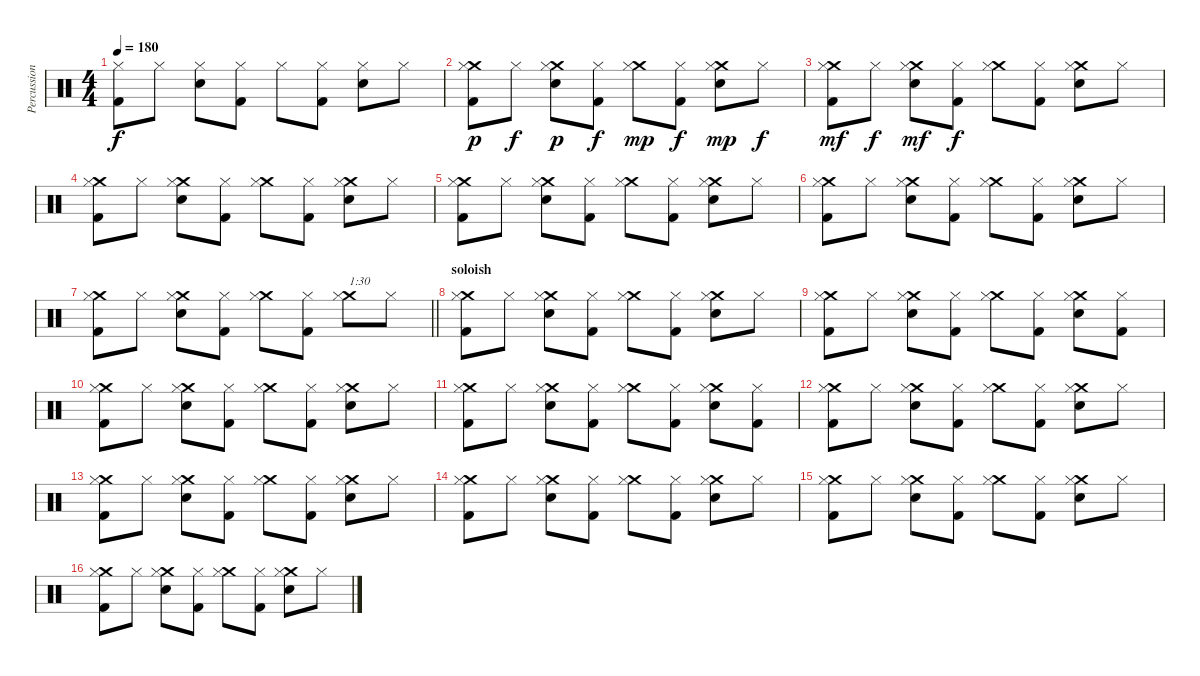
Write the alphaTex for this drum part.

\track ("Percussion" "Percussion") {instrument percussion}
\staff {score}
\articulation defaults
\ts (4 4)
\tempo 180
\clef neutral
\ks c
("Hi-Hat (closed)" "Kick (hit) 2").8{dy f} "Hi-Hat (closed)".8 ("Hi-Hat (closed)" "Snare (hit) 2").8 ("Hi-Hat (closed)" "Kick (hit) 2").8 "Hi-Hat (closed)".8 ("Hi-Hat (closed)" "Kick (hit) 2").8 ("Hi-Hat (closed)" "Snare (hit) 2").8 "Hi-Hat (closed)".8 |
("Crash medium (hit)" "Hi-Hat (closed)" "Kick (hit) 2").8{dy p} "Hi-Hat (closed)".8{dy f} ("Crash medium (hit)" "Hi-Hat (closed)" "Snare (hit) 2").8{dy p} ("Hi-Hat (closed)" "Kick (hit) 2").8{dy f} ("Crash medium (hit)" "Hi-Hat (closed)").8{dy mp} ("Hi-Hat (closed)" "Kick (hit) 2").8{dy f} ("Crash medium (hit)" "Hi-Hat (closed)" "Snare (hit) 2").8{dy mp} "Hi-Hat (closed)".8{dy f} |
("Crash medium (hit)" "Hi-Hat (closed)" "Kick (hit) 2").8{dy mf} "Hi-Hat (closed)".8{dy f} ("Crash medium (hit)" "Hi-Hat (closed)" "Snare (hit) 2").8{dy mf} ("Hi-Hat (closed)" "Kick (hit) 2").8{dy f} ("Crash medium (hit)" "Hi-Hat (closed)").8 ("Hi-Hat (closed)" "Kick (hit) 2").8 ("Crash medium (hit)" "Hi-Hat (closed)" "Snare (hit) 2").8 "Hi-Hat (closed)".8 |
("Crash medium (hit)" "Hi-Hat (closed)" "Kick (hit) 2").8 "Hi-Hat (closed)".8 ("Crash medium (hit)" "Hi-Hat (closed)" "Snare (hit) 2").8 ("Hi-Hat (closed)" "Kick (hit) 2").8 ("Crash medium (hit)" "Hi-Hat (closed)").8 ("Hi-Hat (closed)" "Kick (hit) 2").8 ("Crash medium (hit)" "Hi-Hat (closed)" "Snare (hit) 2").8 "Hi-Hat (closed)".8 |
("Crash medium (hit)" "Hi-Hat (closed)" "Kick (hit) 2").8 "Hi-Hat (closed)".8 ("Crash medium (hit)" "Hi-Hat (closed)" "Snare (hit) 2").8 ("Hi-Hat (closed)" "Kick (hit) 2").8 ("Crash medium (hit)" "Hi-Hat (closed)").8 ("Hi-Hat (closed)" "Kick (hit) 2").8 ("Crash medium (hit)" "Hi-Hat (closed)" "Snare (hit) 2").8 "Hi-Hat (closed)".8 |
("Crash medium (hit)" "Hi-Hat (closed)" "Kick (hit) 2").8 "Hi-Hat (closed)".8 ("Crash medium (hit)" "Hi-Hat (closed)" "Snare (hit) 2").8 ("Hi-Hat (closed)" "Kick (hit) 2").8 ("Crash medium (hit)" "Hi-Hat (closed)").8 ("Hi-Hat (closed)" "Kick (hit) 2").8 ("Crash medium (hit)" "Hi-Hat (closed)" "Snare (hit) 2").8 "Hi-Hat (closed)".8 |
\barLineRight lightlight
("Crash medium (hit)" "Hi-Hat (closed)" "Kick (hit) 2").8 "Hi-Hat (closed)".8 ("Crash medium (hit)" "Hi-Hat (closed)" "Snare (hit) 2").8 ("Hi-Hat (closed)" "Kick (hit) 2").8 ("Crash medium (hit)" "Hi-Hat (closed)").8 ("Hi-Hat (closed)" "Kick (hit) 2").8 ("Crash medium (hit)" "Hi-Hat (closed)").8{txt "1:30"} "Hi-Hat (closed)".8 |
\section ("" "soloish")
("Crash medium (hit)" "Hi-Hat (closed)" "Kick (hit) 2").8 "Hi-Hat (closed)".8 ("Crash medium (hit)" "Hi-Hat (closed)" "Snare (hit) 2").8 ("Hi-Hat (closed)" "Kick (hit) 2").8 ("Crash medium (hit)" "Hi-Hat (closed)").8 ("Hi-Hat (closed)" "Kick (hit) 2").8 ("Crash medium (hit)" "Hi-Hat (closed)" "Snare (hit) 2").8 "Hi-Hat (closed)".8 |
("Crash medium (hit)" "Hi-Hat (closed)" "Kick (hit) 2").8 "Hi-Hat (closed)".8 ("Crash medium (hit)" "Hi-Hat (closed)" "Snare (hit) 2").8 ("Hi-Hat (closed)" "Kick (hit) 2").8 ("Crash medium (hit)" "Hi-Hat (closed)").8 ("Hi-Hat (closed)" "Kick (hit) 2").8 ("Crash medium (hit)" "Hi-Hat (closed)" "Snare (hit) 2").8 ("Hi-Hat (closed)" "Kick (hit) 2").8 |
("Crash medium (hit)" "Hi-Hat (closed)" "Kick (hit) 2").8 "Hi-Hat (closed)".8 ("Crash medium (hit)" "Hi-Hat (closed)" "Snare (hit) 2").8 ("Hi-Hat (closed)" "Kick (hit) 2").8 ("Crash medium (hit)" "Hi-Hat (closed)").8 ("Hi-Hat (closed)" "Kick (hit) 2").8 ("Crash medium (hit)" "Hi-Hat (closed)" "Snare (hit) 2").8 "Hi-Hat (closed)".8 |
("Crash medium (hit)" "Hi-Hat (closed)" "Kick (hit) 2").8 "Hi-Hat (closed)".8 ("Crash medium (hit)" "Hi-Hat (closed)" "Snare (hit) 2").8 ("Hi-Hat (closed)" "Kick (hit) 2").8 ("Crash medium (hit)" "Hi-Hat (closed)").8 ("Hi-Hat (closed)" "Kick (hit) 2").8 ("Crash medium (hit)" "Hi-Hat (closed)" "Snare (hit) 2").8 ("Hi-Hat (closed)" "Kick (hit) 2").8 |
("Crash medium (hit)" "Hi-Hat (closed)" "Kick (hit) 2").8 "Hi-Hat (closed)".8 ("Crash medium (hit)" "Hi-Hat (closed)" "Snare (hit) 2").8 ("Hi-Hat (closed)" "Kick (hit) 2").8 ("Crash medium (hit)" "Hi-Hat (closed)").8 ("Hi-Hat (closed)" "Kick (hit) 2").8 ("Crash medium (hit)" "Hi-Hat (closed)" "Snare (hit) 2").8 "Hi-Hat (closed)".8 |
("Crash medium (hit)" "Hi-Hat (closed)" "Kick (hit) 2").8 "Hi-Hat (closed)".8 ("Crash medium (hit)" "Hi-Hat (closed)" "Snare (hit) 2").8 ("Hi-Hat (closed)" "Kick (hit) 2").8 ("Crash medium (hit)" "Hi-Hat (closed)").8 ("Hi-Hat (closed)" "Kick (hit) 2").8 ("Crash medium (hit)" "Hi-Hat (closed)" "Snare (hit) 2").8 "Hi-Hat (closed)".8 |
("Crash medium (hit)" "Hi-Hat (closed)" "Kick (hit) 2").8 "Hi-Hat (closed)".8 ("Crash medium (hit)" "Hi-Hat (closed)" "Snare (hit) 2").8 ("Hi-Hat (closed)" "Kick (hit) 2").8 ("Crash medium (hit)" "Hi-Hat (closed)").8 ("Hi-Hat (closed)" "Kick (hit) 2").8 ("Crash medium (hit)" "Hi-Hat (closed)" "Snare (hit) 2").8 "Hi-Hat (closed)".8 |
("Crash medium (hit)" "Hi-Hat (closed)" "Kick (hit) 2").8 "Hi-Hat (closed)".8 ("Crash medium (hit)" "Hi-Hat (closed)" "Snare (hit) 2").8 ("Hi-Hat (closed)" "Kick (hit) 2").8 ("Crash medium (hit)" "Hi-Hat (closed)").8 ("Hi-Hat (closed)" "Kick (hit) 2").8 ("Crash medium (hit)" "Hi-Hat (closed)" "Snare (hit) 2").8 "Hi-Hat (closed)".8 |
("Crash medium (hit)" "Hi-Hat (closed)" "Kick (hit) 2").8 "Hi-Hat (closed)".8 ("Crash medium (hit)" "Hi-Hat (closed)" "Snare (hit) 2").8 ("Hi-Hat (closed)" "Kick (hit) 2").8 ("Crash medium (hit)" "Hi-Hat (closed)").8 ("Hi-Hat (closed)" "Kick (hit) 2").8 ("Crash medium (hit)" "Hi-Hat (closed)" "Snare (hit) 2").8 "Hi-Hat (closed)".8
